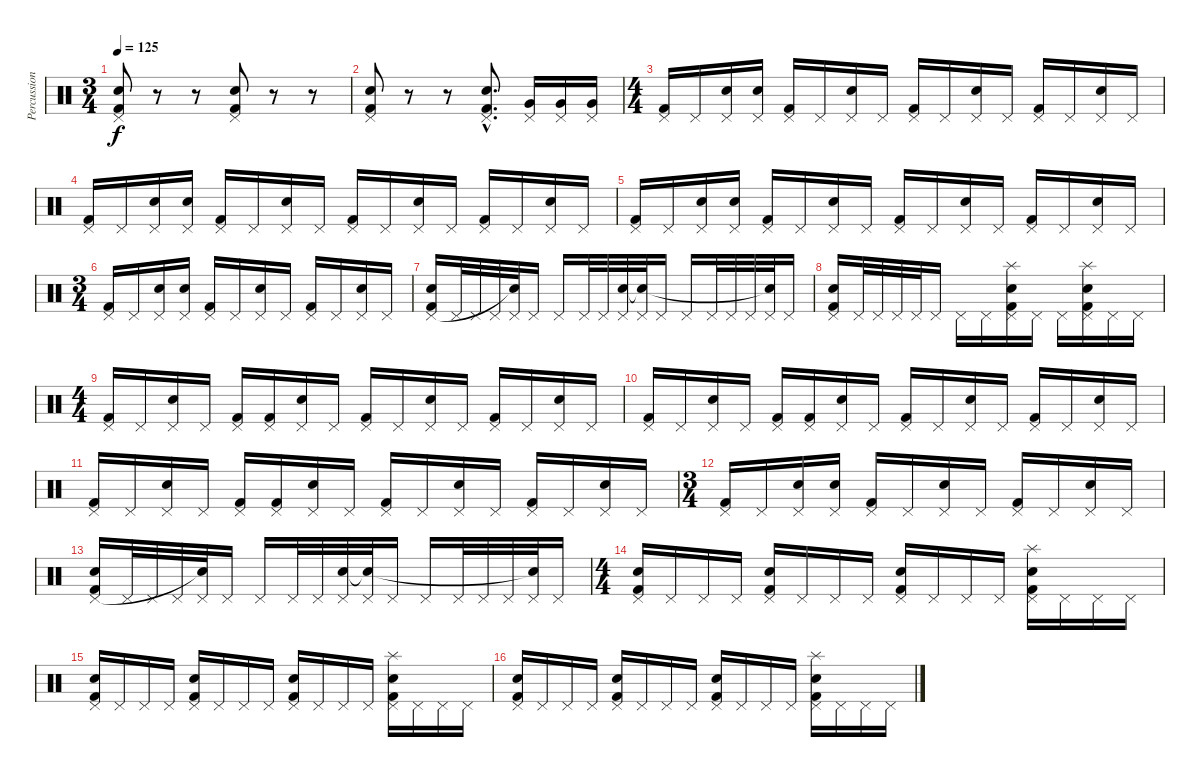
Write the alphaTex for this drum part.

\track ("Percussion" "Percussion") {instrument percussion}
\staff {score}
\articulation defaults
\ts (3 4)
\tempo 125
\clef neutral
\ks c
("Kick (hit) 2" "Pedal Hi-Hat (hit)" "Snare (hit) 2").8{dy f} r.8 r.8 ("Kick (hit) 2" "Pedal Hi-Hat (hit)" "Snare (hit) 2").8 r.8 r.8 |
("Kick (hit) 2" "Pedal Hi-Hat (hit)" "Snare (hit) 2").8 r.8 r.8 ("Kick (hit) 2"{hac} "Pedal Hi-Hat (hit)"{hac} "Snare (hit) 2"{hac}).8{d} ("Pedal Hi-Hat (hit)" "Very Low Tom (hit)").16 ("Pedal Hi-Hat (hit)" "Very Low Tom (hit)").16 ("Pedal Hi-Hat (hit)" "Very Low Tom (hit)").16 |
\ts (4 4)
("Kick (hit) 2" "Pedal Hi-Hat (hit)").16 "Pedal Hi-Hat (hit)".16 ("Pedal Hi-Hat (hit)" "Snare (hit) 2").16 ("Pedal Hi-Hat (hit)" "Snare (hit) 2").16 ("Kick (hit) 2" "Pedal Hi-Hat (hit)").16 "Pedal Hi-Hat (hit)".16 ("Pedal Hi-Hat (hit)" "Snare (hit) 2").16 "Pedal Hi-Hat (hit)".16 ("Kick (hit) 2" "Pedal Hi-Hat (hit)").16 "Pedal Hi-Hat (hit)".16 ("Pedal Hi-Hat (hit)" "Snare (hit) 2").16 "Pedal Hi-Hat (hit)".16 ("Kick (hit) 2" "Pedal Hi-Hat (hit)").16 "Pedal Hi-Hat (hit)".16 ("Pedal Hi-Hat (hit)" "Snare (hit) 2").16 "Pedal Hi-Hat (hit)".16 |
("Kick (hit) 2" "Pedal Hi-Hat (hit)").16 "Pedal Hi-Hat (hit)".16 ("Pedal Hi-Hat (hit)" "Snare (hit) 2").16 ("Pedal Hi-Hat (hit)" "Snare (hit) 2").16 ("Kick (hit) 2" "Pedal Hi-Hat (hit)").16 "Pedal Hi-Hat (hit)".16 ("Pedal Hi-Hat (hit)" "Snare (hit) 2").16 "Pedal Hi-Hat (hit)".16 ("Kick (hit) 2" "Pedal Hi-Hat (hit)").16 "Pedal Hi-Hat (hit)".16 ("Pedal Hi-Hat (hit)" "Snare (hit) 2").16 "Pedal Hi-Hat (hit)".16 ("Kick (hit) 2" "Pedal Hi-Hat (hit)").16 "Pedal Hi-Hat (hit)".16 ("Pedal Hi-Hat (hit)" "Snare (hit) 2").16 "Pedal Hi-Hat (hit)".16 |
("Kick (hit) 2" "Pedal Hi-Hat (hit)").16 "Pedal Hi-Hat (hit)".16 ("Pedal Hi-Hat (hit)" "Snare (hit) 2").16 ("Pedal Hi-Hat (hit)" "Snare (hit) 2").16 ("Kick (hit) 2" "Pedal Hi-Hat (hit)").16 "Pedal Hi-Hat (hit)".16 ("Pedal Hi-Hat (hit)" "Snare (hit) 2").16 "Pedal Hi-Hat (hit)".16 ("Kick (hit) 2" "Pedal Hi-Hat (hit)").16 "Pedal Hi-Hat (hit)".16 ("Pedal Hi-Hat (hit)" "Snare (hit) 2").16 "Pedal Hi-Hat (hit)".16 ("Kick (hit) 2" "Pedal Hi-Hat (hit)").16 "Pedal Hi-Hat (hit)".16 ("Pedal Hi-Hat (hit)" "Snare (hit) 2").16 "Pedal Hi-Hat (hit)".16 |
\ts (3 4)
("Kick (hit) 2" "Pedal Hi-Hat (hit)").16 "Pedal Hi-Hat (hit)".16 ("Pedal Hi-Hat (hit)" "Snare (hit) 2").16 ("Pedal Hi-Hat (hit)" "Snare (hit) 2").16 ("Kick (hit) 2" "Pedal Hi-Hat (hit)").16 "Pedal Hi-Hat (hit)".16 ("Pedal Hi-Hat (hit)" "Snare (hit) 2").16 "Pedal Hi-Hat (hit)".16 ("Kick (hit) 2" "Pedal Hi-Hat (hit)").16 "Pedal Hi-Hat (hit)".16 ("Pedal Hi-Hat (hit)" "Snare (hit) 2").16 "Pedal Hi-Hat (hit)".16 |
("Kick (hit) 2" "Pedal Hi-Hat (hit)" "Snare (hit) 2").16 "Pedal Hi-Hat (hit)".32 "Pedal Hi-Hat (hit)".32 "Pedal Hi-Hat (hit)".32 ("Pedal Hi-Hat (hit)" "Snare (hit)"{t}).32 "Pedal Hi-Hat (hit)".16 "Pedal Hi-Hat (hit)".16 "Pedal Hi-Hat (hit)".32 "Pedal Hi-Hat (hit)".32 ("Pedal Hi-Hat (hit)" "Snare (hit) 2").32 ("Pedal Hi-Hat (hit)" "Snare (hit)"{t}).32 "Pedal Hi-Hat (hit)".16 "Pedal Hi-Hat (hit)".16 "Pedal Hi-Hat (hit)".32 "Pedal Hi-Hat (hit)".32 "Pedal Hi-Hat (hit)".32 ("Pedal Hi-Hat (hit)" "Snare (hit)"{t}).32 "Pedal Hi-Hat (hit)".16 |
("Kick (hit) 2" "Pedal Hi-Hat (hit)" "Snare (hit) 2").16 "Pedal Hi-Hat (hit)".32 "Pedal Hi-Hat (hit)".32 "Pedal Hi-Hat (hit)".32 "Pedal Hi-Hat (hit)".32 "Pedal Hi-Hat (hit)".16 "Pedal Hi-Hat (hit)".16 "Pedal Hi-Hat (hit)".16 ("Kick (hit) 2" "Pedal Hi-Hat (hit)" "Snare (hit) 2" "Splash (hit)").16 "Pedal Hi-Hat (hit)".16 "Pedal Hi-Hat (hit)".16 ("Kick (hit) 2" "Pedal Hi-Hat (hit)" "Snare (hit) 2" "Splash (hit)").16 "Pedal Hi-Hat (hit)".16 "Pedal Hi-Hat (hit)".16 |
\ts (4 4)
("Kick (hit) 2" "Pedal Hi-Hat (hit)").16 "Pedal Hi-Hat (hit)".16 ("Pedal Hi-Hat (hit)" "Snare (hit) 2").16 "Pedal Hi-Hat (hit)".16 ("Kick (hit) 2" "Pedal Hi-Hat (hit)").16 ("Kick (hit) 2" "Pedal Hi-Hat (hit)").16 ("Pedal Hi-Hat (hit)" "Snare (hit) 2").16 "Pedal Hi-Hat (hit)".16 ("Kick (hit) 2" "Pedal Hi-Hat (hit)").16 "Pedal Hi-Hat (hit)".16 ("Pedal Hi-Hat (hit)" "Snare (hit) 2").16 "Pedal Hi-Hat (hit)".16 ("Kick (hit) 2" "Pedal Hi-Hat (hit)").16 "Pedal Hi-Hat (hit)".16 ("Pedal Hi-Hat (hit)" "Snare (hit) 2").16 "Pedal Hi-Hat (hit)".16 |
("Kick (hit) 2" "Pedal Hi-Hat (hit)").16 "Pedal Hi-Hat (hit)".16 ("Pedal Hi-Hat (hit)" "Snare (hit) 2").16 "Pedal Hi-Hat (hit)".16 ("Kick (hit) 2" "Pedal Hi-Hat (hit)").16 ("Kick (hit) 2" "Pedal Hi-Hat (hit)").16 ("Pedal Hi-Hat (hit)" "Snare (hit) 2").16 "Pedal Hi-Hat (hit)".16 ("Kick (hit) 2" "Pedal Hi-Hat (hit)").16 "Pedal Hi-Hat (hit)".16 ("Pedal Hi-Hat (hit)" "Snare (hit) 2").16 "Pedal Hi-Hat (hit)".16 ("Kick (hit) 2" "Pedal Hi-Hat (hit)").16 "Pedal Hi-Hat (hit)".16 ("Pedal Hi-Hat (hit)" "Snare (hit) 2").16 "Pedal Hi-Hat (hit)".16 |
("Kick (hit) 2" "Pedal Hi-Hat (hit)").16 "Pedal Hi-Hat (hit)".16 ("Pedal Hi-Hat (hit)" "Snare (hit) 2").16 "Pedal Hi-Hat (hit)".16 ("Kick (hit) 2" "Pedal Hi-Hat (hit)").16 ("Kick (hit) 2" "Pedal Hi-Hat (hit)").16 ("Pedal Hi-Hat (hit)" "Snare (hit) 2").16 "Pedal Hi-Hat (hit)".16 ("Kick (hit) 2" "Pedal Hi-Hat (hit)").16 "Pedal Hi-Hat (hit)".16 ("Pedal Hi-Hat (hit)" "Snare (hit) 2").16 "Pedal Hi-Hat (hit)".16 ("Kick (hit) 2" "Pedal Hi-Hat (hit)").16 "Pedal Hi-Hat (hit)".16 ("Pedal Hi-Hat (hit)" "Snare (hit) 2").16 "Pedal Hi-Hat (hit)".16 |
\ts (3 4)
("Kick (hit) 2" "Pedal Hi-Hat (hit)").16 "Pedal Hi-Hat (hit)".16 ("Pedal Hi-Hat (hit)" "Snare (hit) 2").16 ("Pedal Hi-Hat (hit)" "Snare (hit) 2").16 ("Kick (hit) 2" "Pedal Hi-Hat (hit)").16 "Pedal Hi-Hat (hit)".16 ("Pedal Hi-Hat (hit)" "Snare (hit) 2").16 "Pedal Hi-Hat (hit)".16 ("Kick (hit) 2" "Pedal Hi-Hat (hit)").16 "Pedal Hi-Hat (hit)".16 ("Pedal Hi-Hat (hit)" "Snare (hit) 2").16 "Pedal Hi-Hat (hit)".16 |
("Kick (hit) 2" "Pedal Hi-Hat (hit)" "Snare (hit) 2").16 "Pedal Hi-Hat (hit)".32 "Pedal Hi-Hat (hit)".32 "Pedal Hi-Hat (hit)".32 ("Pedal Hi-Hat (hit)" "Snare (hit)"{t}).32 "Pedal Hi-Hat (hit)".16 "Pedal Hi-Hat (hit)".16 "Pedal Hi-Hat (hit)".32 "Pedal Hi-Hat (hit)".32 ("Pedal Hi-Hat (hit)" "Snare (hit) 2").32 ("Pedal Hi-Hat (hit)" "Snare (hit)"{t}).32 "Pedal Hi-Hat (hit)".16 "Pedal Hi-Hat (hit)".16 "Pedal Hi-Hat (hit)".32 "Pedal Hi-Hat (hit)".32 "Pedal Hi-Hat (hit)".32 ("Pedal Hi-Hat (hit)" "Snare (hit)"{t}).32 "Pedal Hi-Hat (hit)".16 |
\ts (4 4)
("Kick (hit) 2" "Pedal Hi-Hat (hit)" "Snare (hit) 2").16 "Pedal Hi-Hat (hit)".16 "Pedal Hi-Hat (hit)".16 "Pedal Hi-Hat (hit)".16 ("Kick (hit) 2" "Pedal Hi-Hat (hit)" "Snare (hit) 2").16 "Pedal Hi-Hat (hit)".16 "Pedal Hi-Hat (hit)".16 "Pedal Hi-Hat (hit)".16 ("Kick (hit) 2" "Pedal Hi-Hat (hit)" "Snare (hit) 2").16 "Pedal Hi-Hat (hit)".16 "Pedal Hi-Hat (hit)".16 "Pedal Hi-Hat (hit)".16 ("Kick (hit) 2" "Pedal Hi-Hat (hit)" "Snare (hit) 2" "Splash (hit)").16 "Pedal Hi-Hat (hit)".16 "Pedal Hi-Hat (hit)".16 "Pedal Hi-Hat (hit)".16 |
("Kick (hit) 2" "Pedal Hi-Hat (hit)" "Snare (hit) 2").16 "Pedal Hi-Hat (hit)".16 "Pedal Hi-Hat (hit)".16 "Pedal Hi-Hat (hit)".16 ("Kick (hit) 2" "Pedal Hi-Hat (hit)" "Snare (hit) 2").16 "Pedal Hi-Hat (hit)".16 "Pedal Hi-Hat (hit)".16 "Pedal Hi-Hat (hit)".16 ("Kick (hit) 2" "Pedal Hi-Hat (hit)" "Snare (hit) 2").16 "Pedal Hi-Hat (hit)".16 "Pedal Hi-Hat (hit)".16 "Pedal Hi-Hat (hit)".16 ("Kick (hit) 2" "Pedal Hi-Hat (hit)" "Snare (hit) 2" "Splash (hit)").16 "Pedal Hi-Hat (hit)".16 "Pedal Hi-Hat (hit)".16 "Pedal Hi-Hat (hit)".16 |
("Kick (hit) 2" "Pedal Hi-Hat (hit)" "Snare (hit) 2").16 "Pedal Hi-Hat (hit)".16 "Pedal Hi-Hat (hit)".16 "Pedal Hi-Hat (hit)".16 ("Kick (hit) 2" "Pedal Hi-Hat (hit)" "Snare (hit) 2").16 "Pedal Hi-Hat (hit)".16 "Pedal Hi-Hat (hit)".16 "Pedal Hi-Hat (hit)".16 ("Kick (hit) 2" "Pedal Hi-Hat (hit)" "Snare (hit) 2").16 "Pedal Hi-Hat (hit)".16 "Pedal Hi-Hat (hit)".16 "Pedal Hi-Hat (hit)".16 ("Kick (hit) 2" "Pedal Hi-Hat (hit)" "Snare (hit) 2" "Splash (hit)").16 "Pedal Hi-Hat (hit)".16 "Pedal Hi-Hat (hit)".16 "Pedal Hi-Hat (hit)".16
